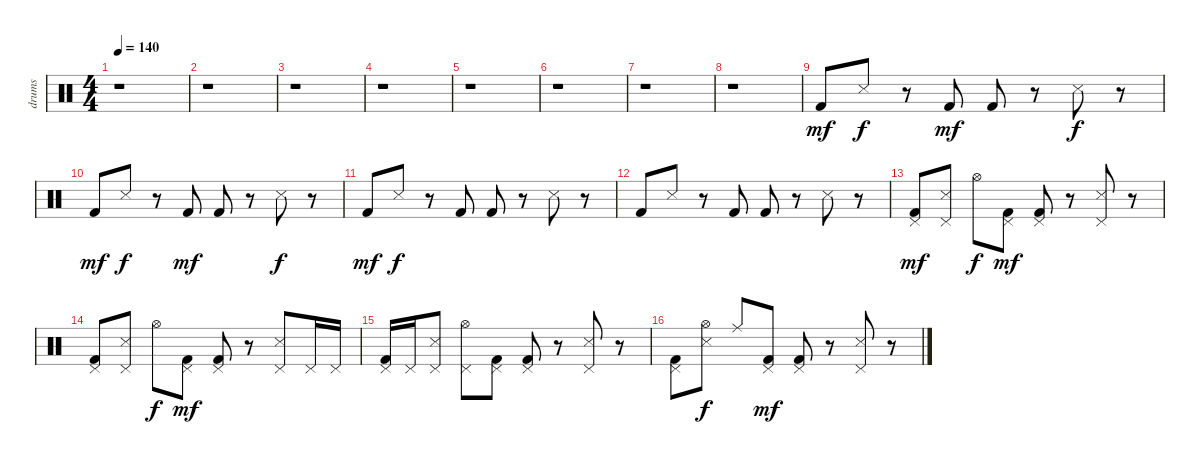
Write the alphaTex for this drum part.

\track ("drums" "drums") {instrument percussion}
\staff {score}
\articulation defaults
\ts (4 4)
\tempo 140
\clef neutral
\ks c
r.1{dy mf} |
r.1 |
r.1 |
r.1 |
r.1 |
r.1 |
r.1 |
r.1 |
"Kick (hit) 2".8 "Snare (side stick) 3".8{dy f} r.8 "Kick (hit) 2".8{dy mf} "Kick (hit) 2".8 r.8 "Snare (side stick) 3".8{dy f} r.8 |
"Kick (hit) 2".8{dy mf} "Snare (side stick) 3".8{dy f} r.8 "Kick (hit) 2".8{dy mf} "Kick (hit) 2".8 r.8 "Snare (side stick) 3".8{dy f} r.8 |
"Kick (hit) 2".8{dy mf} "Snare (side stick) 3".8{dy f} r.8 "Kick (hit) 2".8 "Kick (hit) 2".8 r.8 "Snare (side stick) 3".8 r.8 |
"Kick (hit) 2".8 "Snare (side stick) 3".8 r.8 "Kick (hit) 2".8 "Kick (hit) 2".8 r.8 "Snare (side stick) 3".8 r.8 |
("Pedal Hi-Hat (hit)" "Kick (hit) 2").8{dy mf} ("Pedal Hi-Hat (hit)" "Snare (side stick) 3").8 "Hi-Hat (open)".8{dy f} ("Pedal Hi-Hat (hit)" "Kick (hit) 2").8{dy mf} ("Pedal Hi-Hat (hit)" "Kick (hit) 2").8 r.8 ("Pedal Hi-Hat (hit)" "Snare (side stick) 3").8 r.8 |
("Pedal Hi-Hat (hit)" "Kick (hit) 2").8 ("Pedal Hi-Hat (hit)" "Snare (side stick) 3").8 "Hi-Hat (open)".8{dy f} ("Pedal Hi-Hat (hit)" "Kick (hit) 2").8{dy mf} ("Pedal Hi-Hat (hit)" "Kick (hit) 2").8 r.8 ("Pedal Hi-Hat (hit)" "Snare (side stick) 3").8 "Pedal Hi-Hat (hit)".16 "Pedal Hi-Hat (hit)".16 |
("Pedal Hi-Hat (hit)" "Kick (hit) 2").16 "Pedal Hi-Hat (hit)".16 ("Pedal Hi-Hat (hit)" "Snare (side stick) 3").8 ("Pedal Hi-Hat (hit)" "Hi-Hat (open)").8 ("Pedal Hi-Hat (hit)" "Kick (hit) 2").8 ("Pedal Hi-Hat (hit)" "Kick (hit) 2").8 r.8 ("Pedal Hi-Hat (hit)" "Snare (side stick) 3").8 r.8 |
("Pedal Hi-Hat (hit)" "Kick (hit) 2").8 ("Hi-Hat (open)" "Snare (side stick) 3").8{dy f} "Ride (middle)".8 ("Pedal Hi-Hat (hit)" "Kick (hit) 2").8{dy mf} ("Pedal Hi-Hat (hit)" "Kick (hit) 2").8 r.8 ("Pedal Hi-Hat (hit)" "Snare (side stick) 3").8 r.8
